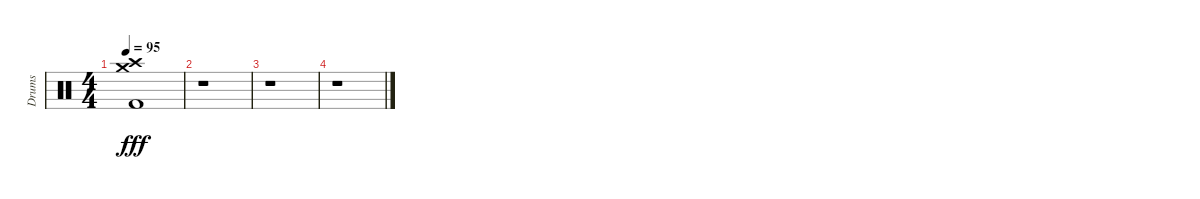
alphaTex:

\track ("Drums" "Drums") {instrument percussion}
\staff {score}
\articulation defaults
\ts (4 4)
\tempo 95
\clef neutral
\ks c
("Crash medium (hit)" "Crash high (hit)" "Kick (hit) 2").1{dy fff} |
r.1 |
r.1 |
r.1
